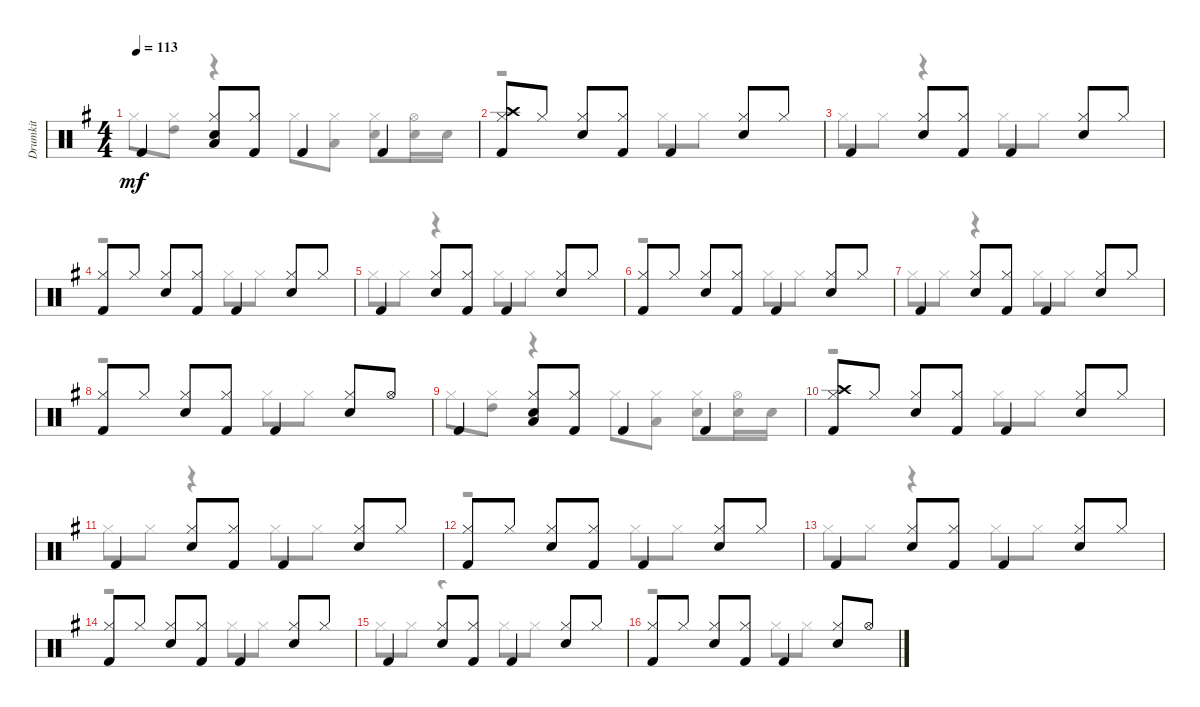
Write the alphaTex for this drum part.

\track ("Drumkit" "Drumkit") {instrument percussion}
\staff {score}
\articulation defaults
\voice
\ts (4 4)
\tempo 113
\clef neutral
\ks eminor "Kick (hit) 2".4{dy mf}
("Hi-Hat (closed)" "Low Floor Tom (hit)" "Snare (hit) 2").8 ("Kick (hit) 2" "Hi-Hat (closed)").8 "Kick (hit) 2".4 "Kick (hit) 2".4 |
("Kick (hit) 2" "Crash high (hit)" "Hi-Hat (closed)").8 "Hi-Hat (closed)".8 ("Hi-Hat (closed)" "Snare (hit) 2").8 ("Kick (hit) 2" "Hi-Hat (closed)").8 "Kick (hit) 2".4 ("Snare (hit) 2" "Hi-Hat (closed)").8 "Hi-Hat (closed)".8 |
"Kick (hit) 2".4 ("Hi-Hat (closed)" "Snare (hit) 2").8 ("Kick (hit) 2" "Hi-Hat (closed)").8 "Kick (hit) 2".4 ("Hi-Hat (closed)" "Snare (hit) 2").8 "Hi-Hat (closed)".8 |
("Hi-Hat (closed)" "Kick (hit) 2").8 "Hi-Hat (closed)".8 ("Snare (hit) 2" "Hi-Hat (closed)").8 ("Hi-Hat (closed)" "Kick (hit) 2").8 "Kick (hit) 2".4 ("Hi-Hat (closed)" "Snare (hit) 2").8 "Hi-Hat (closed)".8 |
"Kick (hit) 2".4 ("Snare (hit) 2" "Hi-Hat (closed)").8 ("Hi-Hat (closed)" "Kick (hit) 2").8 "Kick (hit) 2".4 ("Snare (hit) 2" "Hi-Hat (closed)").8 "Hi-Hat (closed)".8 |
("Hi-Hat (closed)" "Kick (hit) 2").8 "Hi-Hat (closed)".8 ("Snare (hit) 2" "Hi-Hat (closed)").8 ("Hi-Hat (closed)" "Kick (hit) 2").8 "Kick (hit) 2".4 ("Hi-Hat (closed)" "Snare (hit) 2").8 "Hi-Hat (closed)".8 |
"Kick (hit) 2".4 ("Snare (hit) 2" "Hi-Hat (closed)").8 ("Hi-Hat (closed)" "Kick (hit) 2").8 "Kick (hit) 2".4 ("Hi-Hat (closed)" "Snare (hit) 2").8 "Hi-Hat (closed)".8 |
("Kick (hit) 2" "Hi-Hat (closed)").8 "Hi-Hat (closed)".8 ("Snare (hit) 2" "Hi-Hat (closed)").8 ("Hi-Hat (closed)" "Kick (hit) 2").8 "Kick (hit) 2".4 ("Snare (hit) 2" "Hi-Hat (closed)").8 "Hi-Hat (open)".8 |
"Kick (hit) 2".4 ("Low Floor Tom (hit)" "Snare (hit) 2" "Hi-Hat (closed)").8 ("Kick (hit) 2" "Hi-Hat (closed)").8 "Kick (hit) 2".4 "Kick (hit) 2".4 |
("Kick (hit) 2" "Crash high (hit)" "Hi-Hat (closed)").8 "Hi-Hat (closed)".8 ("Snare (hit) 2" "Hi-Hat (closed)").8 ("Hi-Hat (closed)" "Kick (hit) 2").8 "Kick (hit) 2".4 ("Hi-Hat (closed)" "Snare (hit) 2").8 "Hi-Hat (closed)".8 |
"Kick (hit) 2".4 ("Snare (hit) 2" "Hi-Hat (closed)").8 ("Kick (hit) 2" "Hi-Hat (closed)").8 "Kick (hit) 2".4 ("Snare (hit) 2" "Hi-Hat (closed)").8 "Hi-Hat (closed)".8 |
("Kick (hit) 2" "Hi-Hat (closed)").8 "Hi-Hat (closed)".8 ("Snare (hit) 2" "Hi-Hat (closed)").8 ("Hi-Hat (closed)" "Kick (hit) 2").8 "Kick (hit) 2".4 ("Snare (hit) 2" "Hi-Hat (closed)").8 "Hi-Hat (closed)".8 |
"Kick (hit) 2".4 ("Snare (hit) 2" "Hi-Hat (closed)").8 ("Hi-Hat (closed)" "Kick (hit) 2").8 "Kick (hit) 2".4 ("Hi-Hat (closed)" "Snare (hit) 2").8 "Hi-Hat (closed)".8 |
("Kick (hit) 2" "Hi-Hat (closed)").8 "Hi-Hat (closed)".8 ("Snare (hit) 2" "Hi-Hat (closed)").8 ("Kick (hit) 2" "Hi-Hat (closed)").8 "Kick (hit) 2".4 ("Hi-Hat (closed)" "Snare (hit) 2").8 "Hi-Hat (closed)".8 |
"Kick (hit) 2".4 ("Hi-Hat (closed)" "Snare (hit) 2").8 ("Hi-Hat (closed)" "Kick (hit) 2").8 "Kick (hit) 2".4 ("Snare (hit) 2" "Hi-Hat (closed)").8 "Hi-Hat (closed)".8 |
("Hi-Hat (closed)" "Kick (hit) 2").8 "Hi-Hat (closed)".8 ("Snare (hit) 2" "Hi-Hat (closed)").8 ("Hi-Hat (closed)" "Kick (hit) 2").8 "Kick (hit) 2".4 ("Hi-Hat (closed)" "Snare (hit) 2").8 "Hi-Hat (open)".8
\voice
\clef neutral
\ottava regular
\simile none
\ks eminor "Hi-Hat (closed)".8{dy mf}
("Hi-Hat (closed)" "High Tom (hit)").8 r.4 "Hi-Hat (closed)".8 ("Low Floor Tom (hit)" "Hi-Hat (closed)").8 ("Snare (hit) 2" "Hi-Hat (closed)").8 ("Snare (hit) 2" "Hi-Hat (open)").16 "Snare (hit) 2".16 |
r.2 "Hi-Hat (closed)".8 "Hi-Hat (closed)".8 |
"Hi-Hat (closed)".8 "Hi-Hat (closed)".8 r.4 "Hi-Hat (closed)".8 "Hi-Hat (closed)".8 |
r.2 "Hi-Hat (closed)".8 "Hi-Hat (closed)".8 |
"Hi-Hat (closed)".8 "Hi-Hat (closed)".8 r.4 "Hi-Hat (closed)".8 "Hi-Hat (closed)".8 |
r.2 "Hi-Hat (closed)".8 "Hi-Hat (closed)".8 |
"Hi-Hat (closed)".8 "Hi-Hat (closed)".8 r.4 "Hi-Hat (closed)".8 "Hi-Hat (closed)".8 |
r.2 "Hi-Hat (closed)".8 "Hi-Hat (closed)".8 |
"Hi-Hat (closed)".8 ("Hi-Hat (closed)" "High Tom (hit)").8 r.4 "Hi-Hat (closed)".8 ("Low Floor Tom (hit)" "Hi-Hat (closed)").8 ("Snare (hit) 2" "Hi-Hat (closed)").8 ("Snare (hit) 2" "Hi-Hat (open)").16 "Snare (hit) 2".16 |
r.2 "Hi-Hat (closed)".8 "Hi-Hat (closed)".8 |
"Hi-Hat (closed)".8 "Hi-Hat (closed)".8 r.4 "Hi-Hat (closed)".8 "Hi-Hat (closed)".8 |
r.2 "Hi-Hat (closed)".8 "Hi-Hat (closed)".8 |
"Hi-Hat (closed)".8 "Hi-Hat (closed)".8 r.4 "Hi-Hat (closed)".8 "Hi-Hat (closed)".8 |
r.2 "Hi-Hat (closed)".8 "Hi-Hat (closed)".8 |
"Hi-Hat (closed)".8 "Hi-Hat (closed)".8 r.4 "Hi-Hat (closed)".8 "Hi-Hat (closed)".8 |
r.2 "Hi-Hat (closed)".8 "Hi-Hat (closed)".8
